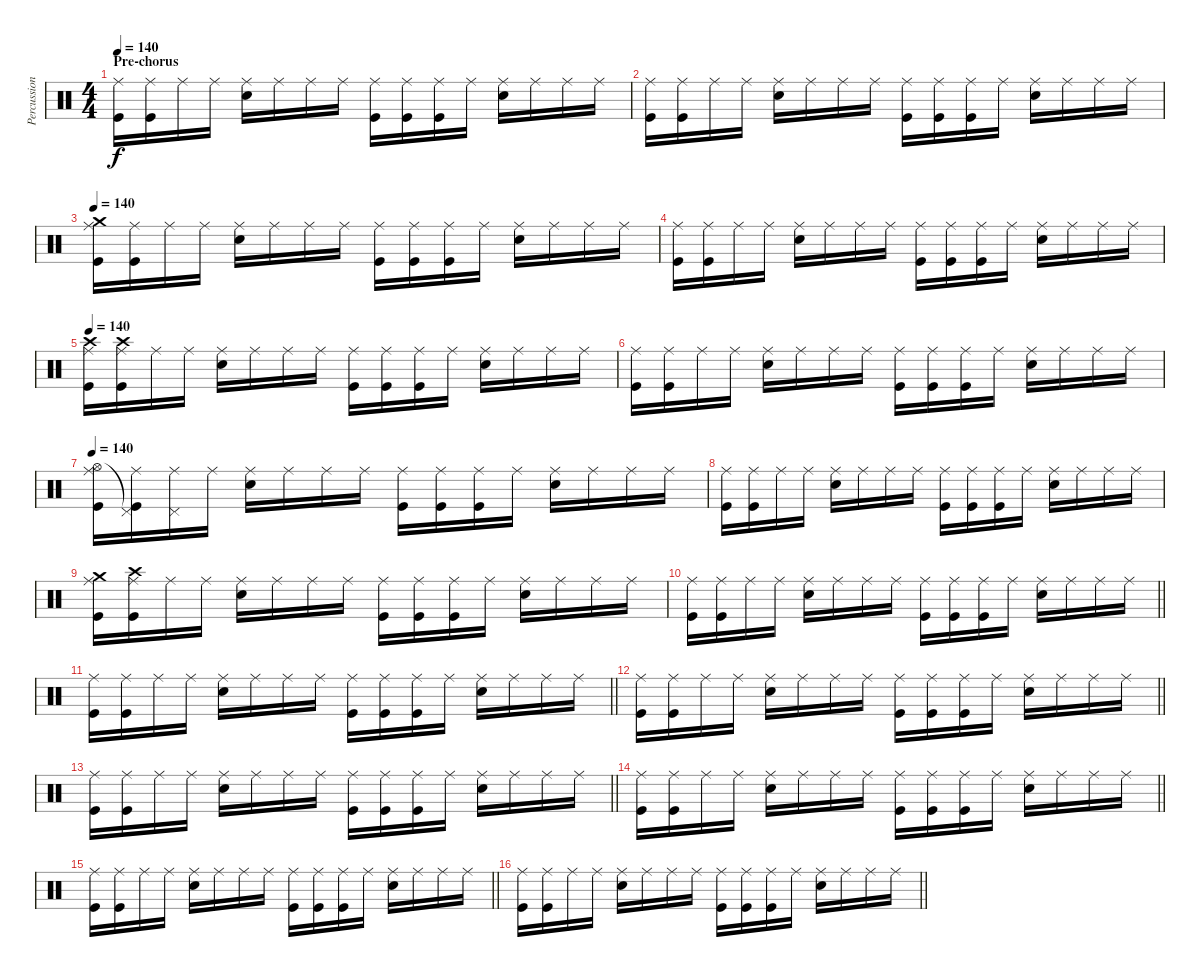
\track ("Percussion" "Percussion") {instrument percussion}
\staff {score}
\articulation defaults
\ts (4 4)
\section ("" "Pre-chorus")
\tempo 140
\clef neutral
\ks c
("Ride (middle)" "Kick (hit)").16{dy f} ("Ride (middle)" "Kick (hit)").16 "Ride (middle)".16 "Ride (middle)".16 ("Ride (middle)" "Electric Snare (hit)").16 "Ride (middle)".16 "Ride (middle)".16 "Ride (middle)".16 ("Ride (middle)" "Kick (hit)").16 ("Ride (middle)" "Kick (hit)").16 ("Ride (middle)" "Kick (hit)").16 "Ride (middle)".16 ("Ride (middle)" "Electric Snare (hit)").16 "Ride (middle)".16 "Ride (middle)".16 "Ride (middle)".16 |
("Ride (middle)" "Kick (hit)").16 ("Ride (middle)" "Kick (hit)").16 "Ride (middle)".16 "Ride (middle)".16 ("Ride (middle)" "Electric Snare (hit)").16 "Ride (middle)".16 "Ride (middle)".16 "Ride (middle)".16 ("Ride (middle)" "Kick (hit)").16 ("Ride (middle)" "Kick (hit)").16 ("Ride (middle)" "Kick (hit)").16 "Ride (middle)".16 ("Ride (middle)" "Electric Snare (hit)").16 "Ride (middle)".16 "Ride (middle)".16 "Ride (middle)".16 |
\tempo 140
("Crash medium (hit)" "Ride (middle)" "Kick (hit)").16 ("Ride (middle)" "Kick (hit)").16 "Ride (middle)".16 "Ride (middle)".16 ("Ride (middle)" "Electric Snare (hit)").16 "Ride (middle)".16 "Ride (middle)".16 "Ride (middle)".16 ("Ride (middle)" "Kick (hit)").16 ("Ride (middle)" "Kick (hit)").16 ("Ride (middle)" "Kick (hit)").16 "Ride (middle)".16 ("Ride (middle)" "Electric Snare (hit)").16 "Ride (middle)".16 "Ride (middle)".16 "Ride (middle)".16 |
("Ride (middle)" "Kick (hit)").16 ("Ride (middle)" "Kick (hit)").16 "Ride (middle)".16 "Ride (middle)".16 ("Ride (middle)" "Electric Snare (hit)").16 "Ride (middle)".16 "Ride (middle)".16 "Ride (middle)".16 ("Ride (middle)" "Kick (hit)").16 ("Ride (middle)" "Kick (hit)").16 ("Ride (middle)" "Kick (hit)").16 "Ride (middle)".16 ("Ride (middle)" "Electric Snare (hit)").16 "Ride (middle)".16 "Ride (middle)".16 "Ride (middle)".16 |
\tempo 140
("Crash high (hit)" "Ride (middle)" "Kick (hit)").16 ("Crash high (hit)" "Ride (middle)" "Kick (hit)").16 "Ride (middle)".16 "Ride (middle)".16 ("Ride (middle)" "Electric Snare (hit)").16 "Ride (middle)".16 "Ride (middle)".16 "Ride (middle)".16 ("Ride (middle)" "Kick (hit)").16 ("Ride (middle)" "Kick (hit)").16 ("Ride (middle)" "Kick (hit)").16 "Ride (middle)".16 ("Ride (middle)" "Electric Snare (hit)").16 "Ride (middle)".16 "Ride (middle)".16 "Ride (middle)".16 |
("Ride (middle)" "Kick (hit)").16 ("Ride (middle)" "Kick (hit)").16 "Ride (middle)".16 "Ride (middle)".16 ("Ride (middle)" "Electric Snare (hit)").16 "Ride (middle)".16 "Ride (middle)".16 "Ride (middle)".16 ("Ride (middle)" "Kick (hit)").16 ("Ride (middle)" "Kick (hit)").16 ("Ride (middle)" "Kick (hit)").16 "Ride (middle)".16 ("Ride (middle)" "Electric Snare (hit)").16 "Ride (middle)".16 "Ride (middle)".16 "Ride (middle)".16 |
\tempo 140
("Hi-Hat (open)" "Ride (middle)" "Kick (hit)").16 ("Pedal Hi-Hat (hit)"{t} "Ride (middle)" "Kick (hit)").16 ("Pedal Hi-Hat (hit)" "Ride (middle)").16 "Ride (middle)".16 ("Ride (middle)" "Electric Snare (hit)").16 "Ride (middle)".16 "Ride (middle)".16 "Ride (middle)".16 ("Ride (middle)" "Kick (hit)").16 ("Ride (middle)" "Kick (hit)").16 ("Ride (middle)" "Kick (hit)").16 "Ride (middle)".16 ("Ride (middle)" "Electric Snare (hit)").16 "Ride (middle)".16 "Ride (middle)".16 "Ride (middle)".16 |
("Ride (middle)" "Kick (hit)").16 ("Ride (middle)" "Kick (hit)").16 "Ride (middle)".16 "Ride (middle)".16 ("Ride (middle)" "Electric Snare (hit)").16 "Ride (middle)".16 "Ride (middle)".16 "Ride (middle)".16 ("Ride (middle)" "Kick (hit)").16 ("Ride (middle)" "Kick (hit)").16 ("Ride (middle)" "Kick (hit)").16 "Ride (middle)".16 ("Ride (middle)" "Electric Snare (hit)").16 "Ride (middle)".16 "Ride (middle)".16 "Ride (middle)".16 |
("Crash medium (hit)" "Ride (middle)" "Kick (hit)").16 ("Crash high (hit)" "Ride (middle)" "Kick (hit)").16 "Ride (middle)".16 "Ride (middle)".16 ("Ride (middle)" "Electric Snare (hit)").16 "Ride (middle)".16 "Ride (middle)".16 "Ride (middle)".16 ("Ride (middle)" "Kick (hit)").16 ("Ride (middle)" "Kick (hit)").16 ("Ride (middle)" "Kick (hit)").16 "Ride (middle)".16 ("Ride (middle)" "Electric Snare (hit)").16 "Ride (middle)".16 "Ride (middle)".16 "Ride (middle)".16 |
\barLineRight lightlight
("Ride (middle)" "Kick (hit)").16 ("Ride (middle)" "Kick (hit)").16 "Ride (middle)".16 "Ride (middle)".16 ("Ride (middle)" "Electric Snare (hit)").16 "Ride (middle)".16 "Ride (middle)".16 "Ride (middle)".16 ("Ride (middle)" "Kick (hit)").16 ("Ride (middle)" "Kick (hit)").16 ("Ride (middle)" "Kick (hit)").16 "Ride (middle)".16 ("Ride (middle)" "Electric Snare (hit)").16 "Ride (middle)".16 "Ride (middle)".16 "Ride (middle)".16 |
\barLineRight lightlight
("Ride (middle)" "Kick (hit)").16 ("Ride (middle)" "Kick (hit)").16 "Ride (middle)".16 "Ride (middle)".16 ("Ride (middle)" "Electric Snare (hit)").16 "Ride (middle)".16 "Ride (middle)".16 "Ride (middle)".16 ("Ride (middle)" "Kick (hit)").16 ("Ride (middle)" "Kick (hit)").16 ("Ride (middle)" "Kick (hit)").16 "Ride (middle)".16 ("Ride (middle)" "Electric Snare (hit)").16 "Ride (middle)".16 "Ride (middle)".16 "Ride (middle)".16 |
\barLineRight lightlight
("Ride (middle)" "Kick (hit)").16 ("Ride (middle)" "Kick (hit)").16 "Ride (middle)".16 "Ride (middle)".16 ("Ride (middle)" "Electric Snare (hit)").16 "Ride (middle)".16 "Ride (middle)".16 "Ride (middle)".16 ("Ride (middle)" "Kick (hit)").16 ("Ride (middle)" "Kick (hit)").16 ("Ride (middle)" "Kick (hit)").16 "Ride (middle)".16 ("Ride (middle)" "Electric Snare (hit)").16 "Ride (middle)".16 "Ride (middle)".16 "Ride (middle)".16 |
\barLineRight lightlight
("Ride (middle)" "Kick (hit)").16 ("Ride (middle)" "Kick (hit)").16 "Ride (middle)".16 "Ride (middle)".16 ("Ride (middle)" "Electric Snare (hit)").16 "Ride (middle)".16 "Ride (middle)".16 "Ride (middle)".16 ("Ride (middle)" "Kick (hit)").16 ("Ride (middle)" "Kick (hit)").16 ("Ride (middle)" "Kick (hit)").16 "Ride (middle)".16 ("Ride (middle)" "Electric Snare (hit)").16 "Ride (middle)".16 "Ride (middle)".16 "Ride (middle)".16 |
\barLineRight lightlight
("Ride (middle)" "Kick (hit)").16 ("Ride (middle)" "Kick (hit)").16 "Ride (middle)".16 "Ride (middle)".16 ("Ride (middle)" "Electric Snare (hit)").16 "Ride (middle)".16 "Ride (middle)".16 "Ride (middle)".16 ("Ride (middle)" "Kick (hit)").16 ("Ride (middle)" "Kick (hit)").16 ("Ride (middle)" "Kick (hit)").16 "Ride (middle)".16 ("Ride (middle)" "Electric Snare (hit)").16 "Ride (middle)".16 "Ride (middle)".16 "Ride (middle)".16 |
\barLineRight lightlight
("Ride (middle)" "Kick (hit)").16 ("Ride (middle)" "Kick (hit)").16 "Ride (middle)".16 "Ride (middle)".16 ("Ride (middle)" "Electric Snare (hit)").16 "Ride (middle)".16 "Ride (middle)".16 "Ride (middle)".16 ("Ride (middle)" "Kick (hit)").16 ("Ride (middle)" "Kick (hit)").16 ("Ride (middle)" "Kick (hit)").16 "Ride (middle)".16 ("Ride (middle)" "Electric Snare (hit)").16 "Ride (middle)".16 "Ride (middle)".16 "Ride (middle)".16 |
\barLineRight lightlight
("Ride (middle)" "Kick (hit)").16 ("Ride (middle)" "Kick (hit)").16 "Ride (middle)".16 "Ride (middle)".16 ("Ride (middle)" "Electric Snare (hit)").16 "Ride (middle)".16 "Ride (middle)".16 "Ride (middle)".16 ("Ride (middle)" "Kick (hit)").16 ("Ride (middle)" "Kick (hit)").16 ("Ride (middle)" "Kick (hit)").16 "Ride (middle)".16 ("Ride (middle)" "Electric Snare (hit)").16 "Ride (middle)".16 "Ride (middle)".16 "Ride (middle)".16
